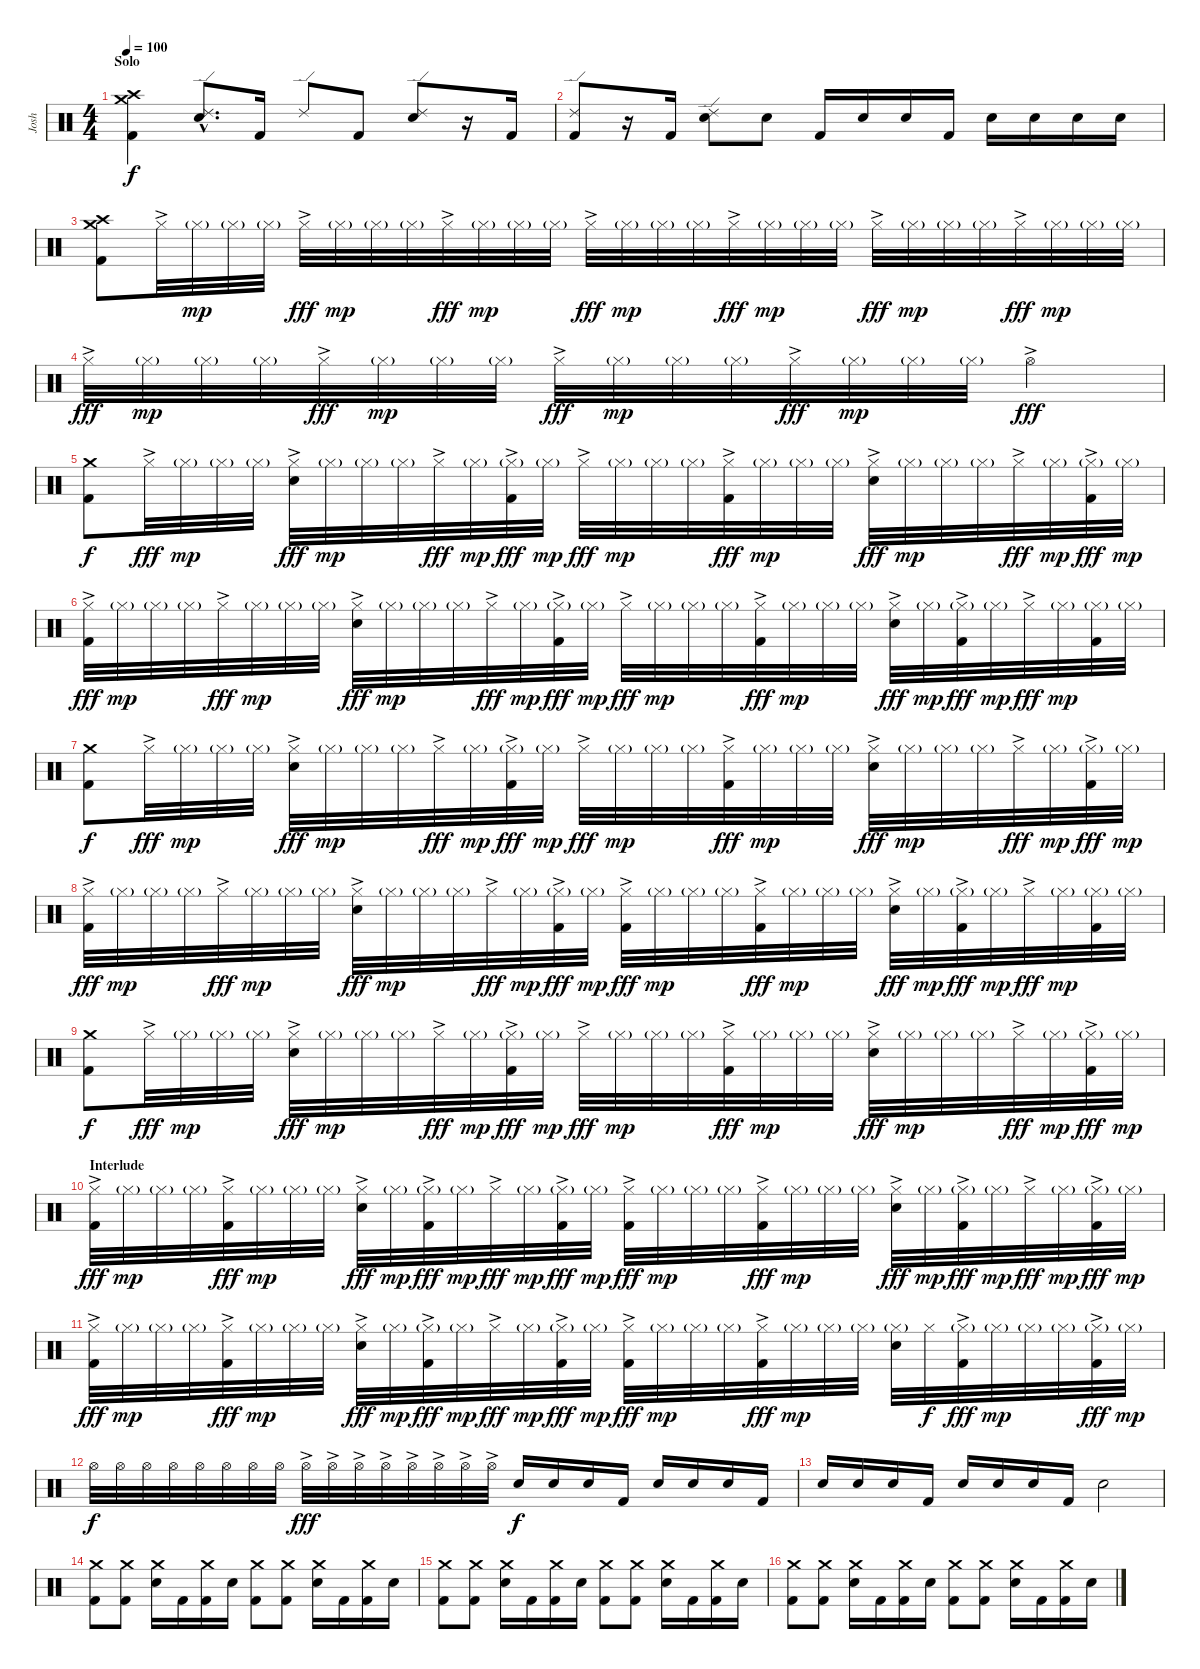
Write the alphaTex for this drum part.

\track ("Josh" "Josh") {instrument percussion}
\staff {score}
\articulation defaults
\ts (4 4)
\section ("" "Solo")
\tempo 100
\clef neutral
\ks c
("Crash high (hit)" "Crash medium (hit)" "Kick (hit) 2").4{dy f} ("Ride (edge) 2"{hac} "Electric Snare (hit)"{hac}).8{d} "Kick (hit) 2".16 "Ride (edge) 2".8 "Kick (hit) 2".8 ("Ride (edge) 2" "Electric Snare (hit)").8 r.16 "Kick (hit) 2".16 |
("Ride (edge) 2" "Kick (hit) 2").8 r.16 "Kick (hit) 2".16 ("Ride (edge) 2" "Electric Snare (hit)").8 "Electric Snare (hit)".8 "Kick (hit) 2".16 "Electric Snare (hit)".16 "Electric Snare (hit)".16 "Kick (hit) 2".16 "Electric Snare (hit)".16 "Electric Snare (hit)".16 "Electric Snare (hit)".16 "Electric Snare (hit)".16 |
("Crash medium (hit)" "Crash high (hit)" "Kick (hit) 2").8 "Hi-Hat (closed)"{ac}.32 "Hi-Hat (closed)"{g}.32{dy mp} "Hi-Hat (closed)"{g}.32 "Hi-Hat (closed)"{g}.32 "Hi-Hat (closed)"{ac}.32{dy fff} "Hi-Hat (closed)"{g}.32{dy mp} "Hi-Hat (closed)"{g}.32 "Hi-Hat (closed)"{g}.32 "Hi-Hat (closed)"{ac}.32{dy fff} "Hi-Hat (closed)"{g}.32{dy mp} "Hi-Hat (closed)"{g}.32 "Hi-Hat (closed)"{g}.32 "Hi-Hat (closed)"{ac}.32{dy fff} "Hi-Hat (closed)"{g}.32{dy mp} "Hi-Hat (closed)"{g}.32 "Hi-Hat (closed)"{g}.32 "Hi-Hat (closed)"{ac}.32{dy fff} "Hi-Hat (closed)"{g}.32{dy mp} "Hi-Hat (closed)"{g}.32 "Hi-Hat (closed)"{g}.32 "Hi-Hat (closed)"{ac}.32{dy fff} "Hi-Hat (closed)"{g}.32{dy mp} "Hi-Hat (closed)"{g}.32 "Hi-Hat (closed)"{g}.32 "Hi-Hat (closed)"{ac}.32{dy fff} "Hi-Hat (closed)"{g}.32{dy mp} "Hi-Hat (closed)"{g}.32 "Hi-Hat (closed)"{g}.32 |
"Hi-Hat (closed)"{ac}.32{dy fff} "Hi-Hat (closed)"{g}.32{dy mp} "Hi-Hat (closed)"{g}.32 "Hi-Hat (closed)"{g}.32 "Hi-Hat (closed)"{ac}.32{dy fff} "Hi-Hat (closed)"{g}.32{dy mp} "Hi-Hat (closed)"{g}.32 "Hi-Hat (closed)"{g}.32 "Hi-Hat (closed)"{ac}.32{dy fff} "Hi-Hat (closed)"{g}.32{dy mp} "Hi-Hat (closed)"{g}.32 "Hi-Hat (closed)"{g}.32 "Hi-Hat (closed)"{ac}.32{dy fff} "Hi-Hat (closed)"{g}.32{dy mp} "Hi-Hat (closed)"{g}.32 "Hi-Hat (closed)"{g}.32 "Hi-Hat (open)"{ac}.2{dy fff} |
("Crash medium (hit)" "Kick (hit) 2").8{dy f} "Hi-Hat (closed)"{ac}.32{dy fff} "Hi-Hat (closed)"{g}.32{dy mp} "Hi-Hat (closed)"{g}.32 "Hi-Hat (closed)"{g}.32 ("Hi-Hat (closed)"{ac} "Electric Snare (hit)").32{dy fff} "Hi-Hat (closed)"{g}.32{dy mp} "Hi-Hat (closed)"{g}.32 "Hi-Hat (closed)"{g}.32 "Hi-Hat (closed)"{ac}.32{dy fff} "Hi-Hat (closed)"{g}.32{dy mp} ("Hi-Hat (closed)"{g} "Kick (hit) 2"{ac}).32{dy fff} "Hi-Hat (closed)"{g}.32{dy mp} "Hi-Hat (closed)"{ac}.32{dy fff} "Hi-Hat (closed)"{g}.32{dy mp} "Hi-Hat (closed)"{g}.32 "Hi-Hat (closed)"{g}.32 ("Hi-Hat (closed)"{ac} "Kick (hit) 2"{ac}).32{dy fff} "Hi-Hat (closed)"{g}.32{dy mp} "Hi-Hat (closed)"{g}.32 "Hi-Hat (closed)"{g}.32 ("Hi-Hat (closed)"{ac} "Electric Snare (hit)").32{dy fff} "Hi-Hat (closed)"{g}.32{dy mp} "Hi-Hat (closed)"{g}.32 "Hi-Hat (closed)"{g}.32 "Hi-Hat (closed)"{ac}.32{dy fff} "Hi-Hat (closed)"{g}.32{dy mp} ("Hi-Hat (closed)"{g} "Kick (hit) 2"{ac}).32{dy fff} "Hi-Hat (closed)"{g}.32{dy mp} |
("Hi-Hat (closed)"{ac} "Kick (hit) 2"{ac}).32{dy fff} "Hi-Hat (closed)"{g}.32{dy mp} "Hi-Hat (closed)"{g}.32 "Hi-Hat (closed)"{g}.32 "Hi-Hat (closed)"{ac}.32{dy fff} "Hi-Hat (closed)"{g}.32{dy mp} "Hi-Hat (closed)"{g}.32 "Hi-Hat (closed)"{g}.32 ("Hi-Hat (closed)"{ac} "Electric Snare (hit)").32{dy fff} "Hi-Hat (closed)"{g}.32{dy mp} "Hi-Hat (closed)"{g}.32 "Hi-Hat (closed)"{g}.32 "Hi-Hat (closed)"{ac}.32{dy fff} "Hi-Hat (closed)"{g}.32{dy mp} ("Hi-Hat (closed)"{g} "Kick (hit) 2"{ac}).32{dy fff} "Hi-Hat (closed)"{g}.32{dy mp} "Hi-Hat (closed)"{ac}.32{dy fff} "Hi-Hat (closed)"{g}.32{dy mp} "Hi-Hat (closed)"{g}.32 "Hi-Hat (closed)"{g}.32 ("Hi-Hat (closed)"{ac} "Kick (hit) 2"{ac}).32{dy fff} "Hi-Hat (closed)"{g}.32{dy mp} "Hi-Hat (closed)"{g}.32 "Hi-Hat (closed)"{g}.32 ("Hi-Hat (closed)"{ac} "Electric Snare (hit)").32{dy fff} "Hi-Hat (closed)"{g}.32{dy mp} ("Hi-Hat (closed)"{g} "Kick (hit) 2"{ac}).32{dy fff} "Hi-Hat (closed)"{g}.32{dy mp} "Hi-Hat (closed)"{ac}.32{dy fff} "Hi-Hat (closed)"{g}.32{dy mp} ("Hi-Hat (closed)"{g} "Kick (hit) 2").32 "Hi-Hat (closed)"{g}.32 |
("Crash medium (hit)" "Kick (hit) 2").8{dy f} "Hi-Hat (closed)"{ac}.32{dy fff} "Hi-Hat (closed)"{g}.32{dy mp} "Hi-Hat (closed)"{g}.32 "Hi-Hat (closed)"{g}.32 ("Hi-Hat (closed)"{ac} "Electric Snare (hit)").32{dy fff} "Hi-Hat (closed)"{g}.32{dy mp} "Hi-Hat (closed)"{g}.32 "Hi-Hat (closed)"{g}.32 "Hi-Hat (closed)"{ac}.32{dy fff} "Hi-Hat (closed)"{g}.32{dy mp} ("Hi-Hat (closed)"{g} "Kick (hit) 2"{ac}).32{dy fff} "Hi-Hat (closed)"{g}.32{dy mp} "Hi-Hat (closed)"{ac}.32{dy fff} "Hi-Hat (closed)"{g}.32{dy mp} "Hi-Hat (closed)"{g}.32 "Hi-Hat (closed)"{g}.32 ("Hi-Hat (closed)"{ac} "Kick (hit) 2"{ac}).32{dy fff} "Hi-Hat (closed)"{g}.32{dy mp} "Hi-Hat (closed)"{g}.32 "Hi-Hat (closed)"{g}.32 ("Hi-Hat (closed)"{ac} "Electric Snare (hit)").32{dy fff} "Hi-Hat (closed)"{g}.32{dy mp} "Hi-Hat (closed)"{g}.32 "Hi-Hat (closed)"{g}.32 "Hi-Hat (closed)"{ac}.32{dy fff} "Hi-Hat (closed)"{g}.32{dy mp} ("Hi-Hat (closed)"{g} "Kick (hit) 2"{ac}).32{dy fff} "Hi-Hat (closed)"{g}.32{dy mp} |
("Hi-Hat (closed)"{ac} "Kick (hit) 2"{ac}).32{dy fff} "Hi-Hat (closed)"{g}.32{dy mp} "Hi-Hat (closed)"{g}.32 "Hi-Hat (closed)"{g}.32 "Hi-Hat (closed)"{ac}.32{dy fff} "Hi-Hat (closed)"{g}.32{dy mp} "Hi-Hat (closed)"{g}.32 "Hi-Hat (closed)"{g}.32 ("Hi-Hat (closed)"{ac} "Electric Snare (hit)").32{dy fff} "Hi-Hat (closed)"{g}.32{dy mp} "Hi-Hat (closed)"{g}.32 "Hi-Hat (closed)"{g}.32 "Hi-Hat (closed)"{ac}.32{dy fff} "Hi-Hat (closed)"{g}.32{dy mp} ("Hi-Hat (closed)"{g} "Kick (hit) 2"{ac}).32{dy fff} "Hi-Hat (closed)"{g}.32{dy mp} ("Hi-Hat (closed)"{ac} "Kick (hit) 2").32{dy fff} "Hi-Hat (closed)"{g}.32{dy mp} "Hi-Hat (closed)"{g}.32 "Hi-Hat (closed)"{g}.32 ("Hi-Hat (closed)"{ac} "Kick (hit) 2"{ac}).32{dy fff} "Hi-Hat (closed)"{g}.32{dy mp} "Hi-Hat (closed)"{g}.32 "Hi-Hat (closed)"{g}.32 ("Hi-Hat (closed)"{ac} "Electric Snare (hit)").32{dy fff} "Hi-Hat (closed)"{g}.32{dy mp} ("Hi-Hat (closed)"{g} "Kick (hit) 2"{ac}).32{dy fff} "Hi-Hat (closed)"{g}.32{dy mp} "Hi-Hat (closed)"{ac}.32{dy fff} "Hi-Hat (closed)"{g}.32{dy mp} ("Hi-Hat (closed)"{g} "Kick (hit) 2").32 "Hi-Hat (closed)"{g}.32 |
("Crash medium (hit)" "Kick (hit) 2").8{dy f} "Hi-Hat (closed)"{ac}.32{dy fff} "Hi-Hat (closed)"{g}.32{dy mp} "Hi-Hat (closed)"{g}.32 "Hi-Hat (closed)"{g}.32 ("Hi-Hat (closed)"{ac} "Electric Snare (hit)").32{dy fff} "Hi-Hat (closed)"{g}.32{dy mp} "Hi-Hat (closed)"{g}.32 "Hi-Hat (closed)"{g}.32 "Hi-Hat (closed)"{ac}.32{dy fff} "Hi-Hat (closed)"{g}.32{dy mp} ("Hi-Hat (closed)"{g} "Kick (hit) 2"{ac}).32{dy fff} "Hi-Hat (closed)"{g}.32{dy mp} "Hi-Hat (closed)"{ac}.32{dy fff} "Hi-Hat (closed)"{g}.32{dy mp} "Hi-Hat (closed)"{g}.32 "Hi-Hat (closed)"{g}.32 ("Hi-Hat (closed)"{ac} "Kick (hit) 2"{ac}).32{dy fff} "Hi-Hat (closed)"{g}.32{dy mp} "Hi-Hat (closed)"{g}.32 "Hi-Hat (closed)"{g}.32 ("Hi-Hat (closed)"{ac} "Electric Snare (hit)").32{dy fff} "Hi-Hat (closed)"{g}.32{dy mp} "Hi-Hat (closed)"{g}.32 "Hi-Hat (closed)"{g}.32 "Hi-Hat (closed)"{ac}.32{dy fff} "Hi-Hat (closed)"{g}.32{dy mp} ("Hi-Hat (closed)"{g} "Kick (hit) 2"{ac}).32{dy fff} "Hi-Hat (closed)"{g}.32{dy mp} |
\section ("" "Interlude")
("Hi-Hat (closed)"{ac} "Kick (hit) 2"{ac}).32{dy fff} "Hi-Hat (closed)"{g}.32{dy mp} "Hi-Hat (closed)"{g}.32 "Hi-Hat (closed)"{g}.32 ("Hi-Hat (closed)"{ac} "Kick (hit) 2"{ac}).32{dy fff} "Hi-Hat (closed)"{g}.32{dy mp} "Hi-Hat (closed)"{g}.32 "Hi-Hat (closed)"{g}.32 ("Hi-Hat (closed)"{ac} "Electric Snare (hit)").32{dy fff} "Hi-Hat (closed)"{g}.32{dy mp} ("Hi-Hat (closed)"{g} "Kick (hit) 2"{ac}).32{dy fff} "Hi-Hat (closed)"{g}.32{dy mp} "Hi-Hat (closed)"{ac}.32{dy fff} "Hi-Hat (closed)"{g}.32{dy mp} ("Hi-Hat (closed)"{g} "Kick (hit) 2"{ac}).32{dy fff} "Hi-Hat (closed)"{g}.32{dy mp} ("Hi-Hat (closed)"{ac} "Kick (hit) 2"{ac}).32{dy fff} "Hi-Hat (closed)"{g}.32{dy mp} "Hi-Hat (closed)"{g}.32 "Hi-Hat (closed)"{g}.32 ("Hi-Hat (closed)"{ac} "Kick (hit) 2"{ac}).32{dy fff} "Hi-Hat (closed)"{g}.32{dy mp} "Hi-Hat (closed)"{g}.32 "Hi-Hat (closed)"{g}.32 ("Hi-Hat (closed)"{ac} "Electric Snare (hit)").32{dy fff} "Hi-Hat (closed)"{g}.32{dy mp} ("Hi-Hat (closed)"{g} "Kick (hit) 2"{ac}).32{dy fff} "Hi-Hat (closed)"{g}.32{dy mp} "Hi-Hat (closed)"{ac}.32{dy fff} "Hi-Hat (closed)"{g}.32{dy mp} ("Hi-Hat (closed)"{g} "Kick (hit) 2"{ac}).32{dy fff} "Hi-Hat (closed)"{g}.32{dy mp} |
("Hi-Hat (closed)"{ac} "Kick (hit) 2"{ac}).32{dy fff} "Hi-Hat (closed)"{g}.32{dy mp} "Hi-Hat (closed)"{g}.32 "Hi-Hat (closed)"{g}.32 ("Hi-Hat (closed)"{ac} "Kick (hit) 2"{ac}).32{dy fff} "Hi-Hat (closed)"{g}.32{dy mp} "Hi-Hat (closed)"{g}.32 "Hi-Hat (closed)"{g}.32 ("Hi-Hat (closed)"{ac} "Electric Snare (hit)").32{dy fff} "Hi-Hat (closed)"{g}.32{dy mp} ("Hi-Hat (closed)"{g} "Kick (hit) 2"{ac}).32{dy fff} "Hi-Hat (closed)"{g}.32{dy mp} "Hi-Hat (closed)"{ac}.32{dy fff} "Hi-Hat (closed)"{g}.32{dy mp} ("Hi-Hat (closed)"{g} "Kick (hit) 2"{ac}).32{dy fff} "Hi-Hat (closed)"{g}.32{dy mp} ("Hi-Hat (closed)"{ac} "Kick (hit) 2"{ac}).32{dy fff} "Hi-Hat (closed)"{g}.32{dy mp} "Hi-Hat (closed)"{g}.32 "Hi-Hat (closed)"{g}.32 ("Hi-Hat (closed)"{ac} "Kick (hit) 2"{ac}).32{dy fff} "Hi-Hat (closed)"{g}.32{dy mp} "Hi-Hat (closed)"{g}.32 "Hi-Hat (closed)"{g}.32 ("Hi-Hat (closed)"{g} "Electric Snare (hit)").32 "Hi-Hat (closed)".32{dy f} ("Hi-Hat (closed)"{g} "Kick (hit) 2"{ac}).32{dy fff} "Hi-Hat (closed)"{g}.32{dy mp} "Hi-Hat (closed)"{g}.32 "Hi-Hat (closed)"{g}.32 ("Hi-Hat (closed)"{g ac} "Kick (hit) 2"{ac}).32{dy fff} "Hi-Hat (closed)"{g}.32{dy mp} |
"Hi-Hat (open)".32{dy f} "Hi-Hat (open)".32 "Hi-Hat (open)".32 "Hi-Hat (open)".32 "Hi-Hat (open)".32 "Hi-Hat (open)".32 "Hi-Hat (open)".32 "Hi-Hat (open)".32 "Hi-Hat (open)"{ac}.32{dy fff} "Hi-Hat (open)"{ac}.32 "Hi-Hat (open)"{ac}.32 "Hi-Hat (open)"{ac}.32 "Hi-Hat (open)"{ac}.32 "Hi-Hat (open)"{ac}.32 "Hi-Hat (open)"{ac}.32 "Hi-Hat (open)"{ac}.32 "Electric Snare (hit)".16{dy f} "Electric Snare (hit)".16 "Electric Snare (hit)".16 "Kick (hit) 2".16 "Electric Snare (hit)".16 "Electric Snare (hit)".16 "Electric Snare (hit)".16 "Kick (hit) 2".16 |
"Electric Snare (hit)".16 "Electric Snare (hit)".16 "Electric Snare (hit)".16 "Kick (hit) 2".16 "Electric Snare (hit)".16 "Electric Snare (hit)".16 "Electric Snare (hit)".16 "Kick (hit) 2".16 "Electric Snare (hit)".2 |
("Crash medium (hit)" "Kick (hit) 2").8 ("Crash medium (hit)" "Kick (hit) 2").8 ("Crash medium (hit)" "Electric Snare (hit)").16 "Kick (hit) 2".16 ("Crash medium (hit)" "Kick (hit) 2").16 "Electric Snare (hit)".16 ("Crash medium (hit)" "Kick (hit) 2").8 ("Crash medium (hit)" "Kick (hit) 2").8 ("Crash medium (hit)" "Electric Snare (hit)").16 "Kick (hit) 2".16 ("Crash medium (hit)" "Kick (hit) 2").16 "Electric Snare (hit)".16 |
("Crash medium (hit)" "Kick (hit) 2").8 ("Crash medium (hit)" "Kick (hit) 2").8 ("Crash medium (hit)" "Electric Snare (hit)").16 "Kick (hit) 2".16 ("Crash medium (hit)" "Kick (hit) 2").16 "Electric Snare (hit)".16 ("Crash medium (hit)" "Kick (hit) 2").8 ("Crash medium (hit)" "Kick (hit) 2").8 ("Crash medium (hit)" "Electric Snare (hit)").16 "Kick (hit) 2".16 ("Crash medium (hit)" "Kick (hit) 2").16 "Electric Snare (hit)".16 |
("Crash medium (hit)" "Kick (hit) 2").8 ("Crash medium (hit)" "Kick (hit) 2").8 ("Crash medium (hit)" "Electric Snare (hit)").16 "Kick (hit) 2".16 ("Crash medium (hit)" "Kick (hit) 2").16 "Electric Snare (hit)".16 ("Crash medium (hit)" "Kick (hit) 2").8 ("Crash medium (hit)" "Kick (hit) 2").8 ("Crash medium (hit)" "Electric Snare (hit)").16 "Kick (hit) 2".16 ("Crash medium (hit)" "Kick (hit) 2").16 "Electric Snare (hit)".16
